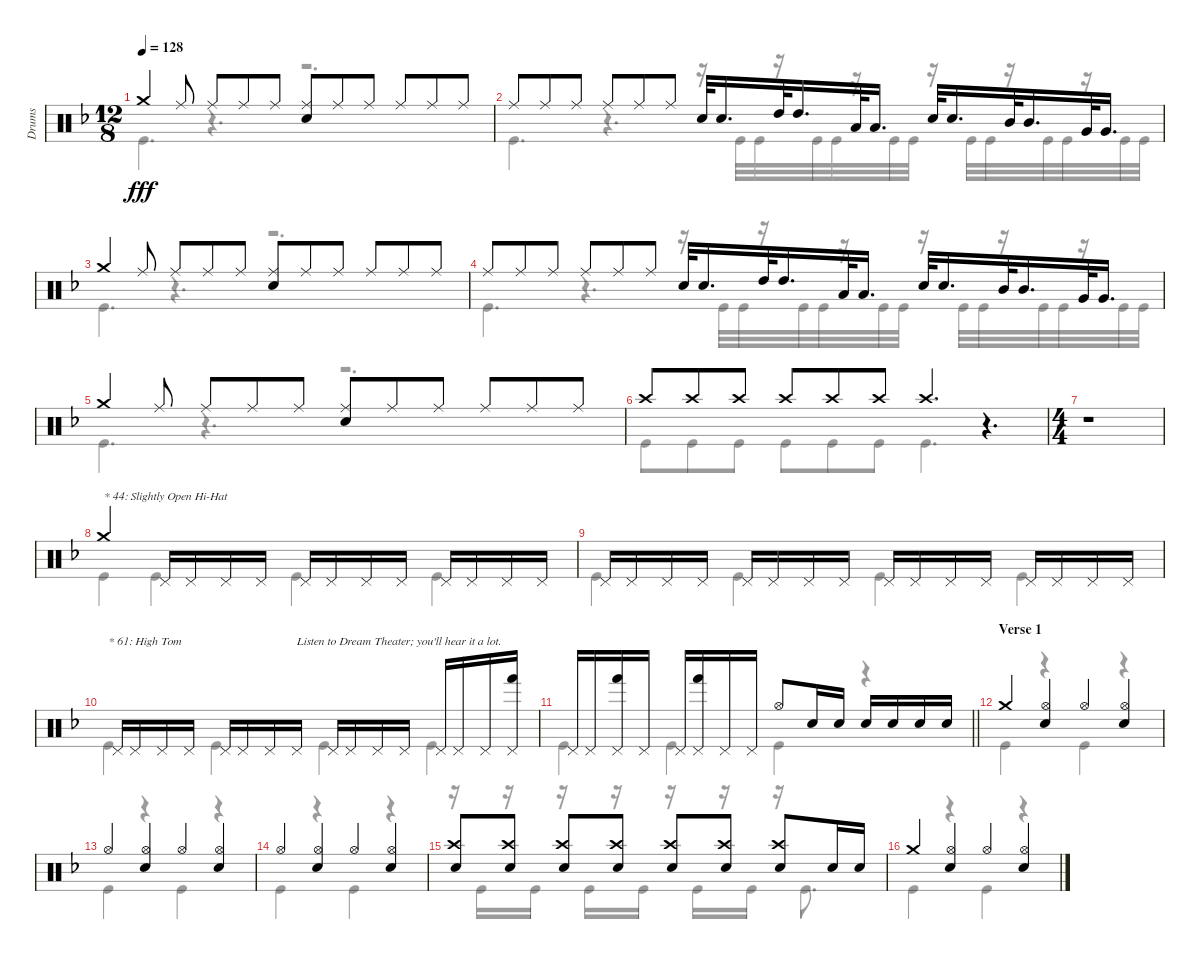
\track ("Drums" "Drums") {instrument percussion}
\staff {score}
\articulation defaults
\voice
\ts (12 8)
\tempo 128
\clef neutral
\ks dminor "Crash medium (hit)".4{dy fff} "Ride (middle)".8 "Ride (middle)".8 "Ride (middle)".8 "Ride (middle)".8
("Ride (middle)" "Electric Snare (hit)").8 "Ride (middle)".8 "Ride (middle)".8 "Ride (middle)".8 "Ride (middle)".8 "Ride (middle)".8 |
"Ride (middle)".8 "Ride (middle)".8 "Ride (middle)".8 "Ride (middle)".8 "Ride (middle)".8 "Ride (middle)".8 "Electric Snare (hit)".32 "Electric Snare (hit)".16{d} "High Tom (hit)".32 "High Tom (hit)".16{d} "Low Tom (hit)".32 "Low Tom (hit)".16{d} "Electric Snare (hit)".32 "Electric Snare (hit)".16{d} "Mid Tom (hit)".32 "Mid Tom (hit)".16{d} "Very Low Tom (hit)".32 "Very Low Tom (hit)".16{d} |
"Crash medium (hit)".4 "Ride (middle)".8 "Ride (middle)".8 "Ride (middle)".8 "Ride (middle)".8 ("Ride (middle)" "Electric Snare (hit)").8 "Ride (middle)".8 "Ride (middle)".8 "Ride (middle)".8 "Ride (middle)".8 "Ride (middle)".8 |
"Ride (middle)".8 "Ride (middle)".8 "Ride (middle)".8 "Ride (middle)".8 "Ride (middle)".8 "Ride (middle)".8 "Electric Snare (hit)".32 "Electric Snare (hit)".16{d} "High Tom (hit)".32 "High Tom (hit)".16{d} "Low Tom (hit)".32 "Low Tom (hit)".16{d} "Electric Snare (hit)".32 "Electric Snare (hit)".16{d} "Mid Tom (hit)".32 "Mid Tom (hit)".16{d} "Very Low Tom (hit)".32 "Very Low Tom (hit)".16{d} |
"Crash medium (hit)".4 "Ride (middle)".8 "Ride (middle)".8 "Ride (middle)".8 "Ride (middle)".8 ("Ride (middle)" "Electric Snare (hit)").8 "Ride (middle)".8 "Ride (middle)".8 "Ride (middle)".8 "Ride (middle)".8 "Ride (middle)".8 |
"Crash high (hit)".8 "Crash high (hit)".8 "Crash high (hit)".8 "Crash high (hit)".8 "Crash high (hit)".8 "Crash high (hit)".8 "Crash high (hit)".4{d} r.4{d} |
\ts (4 4)
r.1 |
"Crash medium (hit)".4{txt "* 44: Slightly Open Hi-Hat"} "Pedal Hi-Hat (hit)".16 "Pedal Hi-Hat (hit)".16 "Pedal Hi-Hat (hit)".16 "Pedal Hi-Hat (hit)".16 "Pedal Hi-Hat (hit)".16 "Pedal Hi-Hat (hit)".16 "Pedal Hi-Hat (hit)".16 "Pedal Hi-Hat (hit)".16 "Pedal Hi-Hat (hit)".16 "Pedal Hi-Hat (hit)".16 "Pedal Hi-Hat (hit)".16 "Pedal Hi-Hat (hit)".16 |
"Pedal Hi-Hat (hit)".16 "Pedal Hi-Hat (hit)".16 "Pedal Hi-Hat (hit)".16 "Pedal Hi-Hat (hit)".16 "Pedal Hi-Hat (hit)".16 "Pedal Hi-Hat (hit)".16 "Pedal Hi-Hat (hit)".16 "Pedal Hi-Hat (hit)".16 "Pedal Hi-Hat (hit)".16 "Pedal Hi-Hat (hit)".16 "Pedal Hi-Hat (hit)".16 "Pedal Hi-Hat (hit)".16 "Pedal Hi-Hat (hit)".16 "Pedal Hi-Hat (hit)".16 "Pedal Hi-Hat (hit)".16 "Pedal Hi-Hat (hit)".16 |
"Pedal Hi-Hat (hit)".16{txt "* 61: High Tom"} "Pedal Hi-Hat (hit)".16 "Pedal Hi-Hat (hit)".16 "Pedal Hi-Hat (hit)".16 "Pedal Hi-Hat (hit)".16 "Pedal Hi-Hat (hit)".16 "Pedal Hi-Hat (hit)".16 "Pedal Hi-Hat (hit)".16{txt "Listen to Dream Theater; you'll hear it a lot."} "Pedal Hi-Hat (hit)".16 "Pedal Hi-Hat (hit)".16 "Pedal Hi-Hat (hit)".16 "Pedal Hi-Hat (hit)".16 "Pedal Hi-Hat (hit)".16 "Pedal Hi-Hat (hit)".16 "Pedal Hi-Hat (hit)".16 ("Pedal Hi-Hat (hit)" "Hand (hit)").16 |
\barLineRight lightlight "Pedal Hi-Hat (hit)".16 "Pedal Hi-Hat (hit)".16
("Pedal Hi-Hat (hit)" "Hand (hit)").16 "Pedal Hi-Hat (hit)".16 "Pedal Hi-Hat (hit)".16 ("Pedal Hi-Hat (hit)" "Hand (hit)").16 "Pedal Hi-Hat (hit)".16 "Pedal Hi-Hat (hit)".16 "Hi-Hat (open)".8 "Electric Snare (hit)".16 "Electric Snare (hit)".16 "Electric Snare (hit)".16 "Electric Snare (hit)".16 "Electric Snare (hit)".16 "Electric Snare (hit)".16 |
\section ("" "Verse 1")
"Crash medium (hit)".4 ("Hi-Hat (open)" "Electric Snare (hit)").4 "Hi-Hat (open)".4 ("Hi-Hat (open)" "Electric Snare (hit)").4 |
"Hi-Hat (open)".4 ("Hi-Hat (open)" "Electric Snare (hit)").4 "Hi-Hat (open)".4 ("Hi-Hat (open)" "Electric Snare (hit)").4 |
"Hi-Hat (open)".4 ("Hi-Hat (open)" "Electric Snare (hit)").4 "Hi-Hat (open)".4 ("Hi-Hat (open)" "Electric Snare (hit)").4 |
("Crash high (hit)" "Electric Snare (hit)").8 ("Crash high (hit)" "Electric Snare (hit)").8 ("Crash high (hit)" "Electric Snare (hit)").8 ("Crash high (hit)" "Electric Snare (hit)").8 ("Crash high (hit)" "Electric Snare (hit)").8 ("Crash high (hit)" "Electric Snare (hit)").8 ("Crash high (hit)" "Electric Snare (hit)").8 "Electric Snare (hit)".16 "Electric Snare (hit)".16 |
"Crash medium (hit)".4 ("Hi-Hat (open)" "Electric Snare (hit)").4 "Hi-Hat (open)".4 ("Hi-Hat (open)" "Electric Snare (hit)").4
\voice
\clef neutral
\ottava regular
\simile none
\ks dminor "Kick (hit)".4{d dy fff}
r.4{d} r.2{d} |
"Kick (hit)".4{d} r.4{d} r.16 "Kick (hit)".32 "Kick (hit)".32 r.16 "Kick (hit)".32 "Kick (hit)".32 r.16 "Kick (hit)".32 "Kick (hit)".32 r.16 "Kick (hit)".32 "Kick (hit)".32 r.16 "Kick (hit)".32 "Kick (hit)".32 r.16 "Kick (hit)".32 "Kick (hit)".32 |
"Kick (hit)".4{d} r.4{d} r.2{d} |
"Kick (hit)".4{d} r.4{d} r.16 "Kick (hit)".32 "Kick (hit)".32 r.16 "Kick (hit)".32 "Kick (hit)".32 r.16 "Kick (hit)".32 "Kick (hit)".32 r.16 "Kick (hit)".32 "Kick (hit)".32 r.16 "Kick (hit)".32 "Kick (hit)".32 r.16 "Kick (hit)".32 "Kick (hit)".32 |
"Kick (hit)".4{d} r.4{d} r.2{d} |
"Kick (hit)".8 "Kick (hit)".8 "Kick (hit)".8 "Kick (hit)".8 "Kick (hit)".8 "Kick (hit)".8 "Kick (hit)".4{d} r.4{d} |
r.1 |
"Kick (hit)".4 "Kick (hit)".4 "Kick (hit)".4 "Kick (hit)".4 |
"Kick (hit)".4 "Kick (hit)".4 "Kick (hit)".4 "Kick (hit)".4 |
"Kick (hit)".4 "Kick (hit)".4 "Kick (hit)".4 "Kick (hit)".4 |
\barLineRight lightlight "Kick (hit)".4 "Kick (hit)".4 "Kick (hit)".4
r.4 |
"Kick (hit)".4 r.4 "Kick (hit)".4 r.4 |
"Kick (hit)".4 r.4 "Kick (hit)".4 r.4 |
"Kick (hit)".4 r.4 "Kick (hit)".4 r.4 |
r.16 "Kick (hit)".16 r.16 "Kick (hit)".16 r.16 "Kick (hit)".16 r.16 "Kick (hit)".16 r.16 "Kick (hit)".16 r.16 "Kick (hit)".16 r.16 "Kick (hit)".8{d} |
"Kick (hit)".4 r.4 "Kick (hit)".4 r.4
